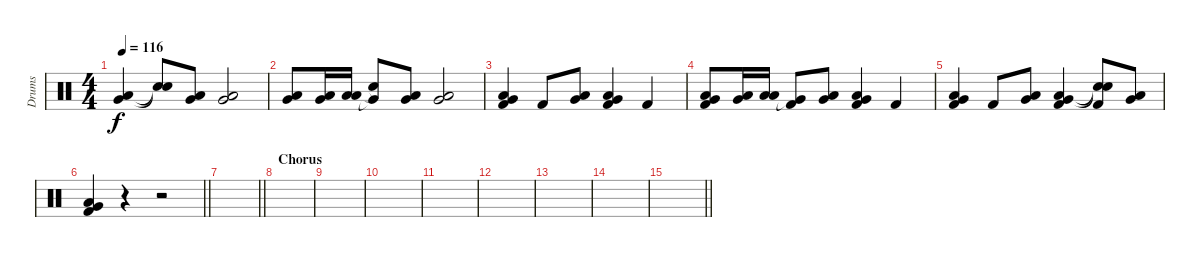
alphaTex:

\track ("Drums" "Drums") {mute instrument percussion}
\staff {score}
\articulation defaults
\ts (4 4)
\tempo 116
\clef neutral
\ks c
("Very Low Tom (hit)" "Low Floor Tom (hit)").4{dy f} ("Snare (hit)"{t} "Snare (hit)"{t}).8 ("Very Low Tom (hit)" "Low Floor Tom (hit)").8 ("Very Low Tom (hit)" "Low Floor Tom (hit)").2 |
("Very Low Tom (hit)" "Low Floor Tom (hit)").8 ("Very Low Tom (hit)" "Low Floor Tom (hit)").16 ("Low Tom (hit)" "Low Floor Tom (hit)").16 ("Very Low Tom (hit)"{t} "Snare (hit)"{t}).8 ("Very Low Tom (hit)" "Low Floor Tom (hit)").8 ("Very Low Tom (hit)" "Low Floor Tom (hit)").2 |
("Very Low Tom (hit)" "Low Floor Tom (hit)" "Kick (hit) 2").4 "Kick (hit) 2".8 ("Very Low Tom (hit)" "Low Floor Tom (hit)").8 ("Very Low Tom (hit)" "Low Floor Tom (hit)" "Kick (hit) 2").4 "Kick (hit) 2".4 |
("Very Low Tom (hit)" "Low Floor Tom (hit)" "Kick (hit) 2").8 ("Very Low Tom (hit)" "Low Floor Tom (hit)").16 ("Low Tom (hit)" "Low Floor Tom (hit)").16 ("Very Low Tom (hit)"{t} "Kick (hit) 2").8 ("Very Low Tom (hit)" "Low Floor Tom (hit)").8 ("Very Low Tom (hit)" "Low Floor Tom (hit)" "Kick (hit) 2").4 "Kick (hit) 2".4 |
("Very Low Tom (hit)" "Low Floor Tom (hit)" "Kick (hit) 2").4 "Kick (hit) 2".8 ("Very Low Tom (hit)" "Low Floor Tom (hit)").8 ("Very Low Tom (hit)" "Low Floor Tom (hit)" "Kick (hit) 2").4 ("Snare (hit)"{t} "Snare (hit)"{t} "Kick (hit) 2").8 ("Very Low Tom (hit)" "Low Floor Tom (hit)").8 |
\barLineRight lightlight
("Very Low Tom (hit)" "Low Floor Tom (hit)" "Kick (hit) 2").4 r.4 r.2 |
\barLineRight lightlight
|
\section ("" "Chorus")
|
|
|
|
|
|
|
\barLineRight lightlight
